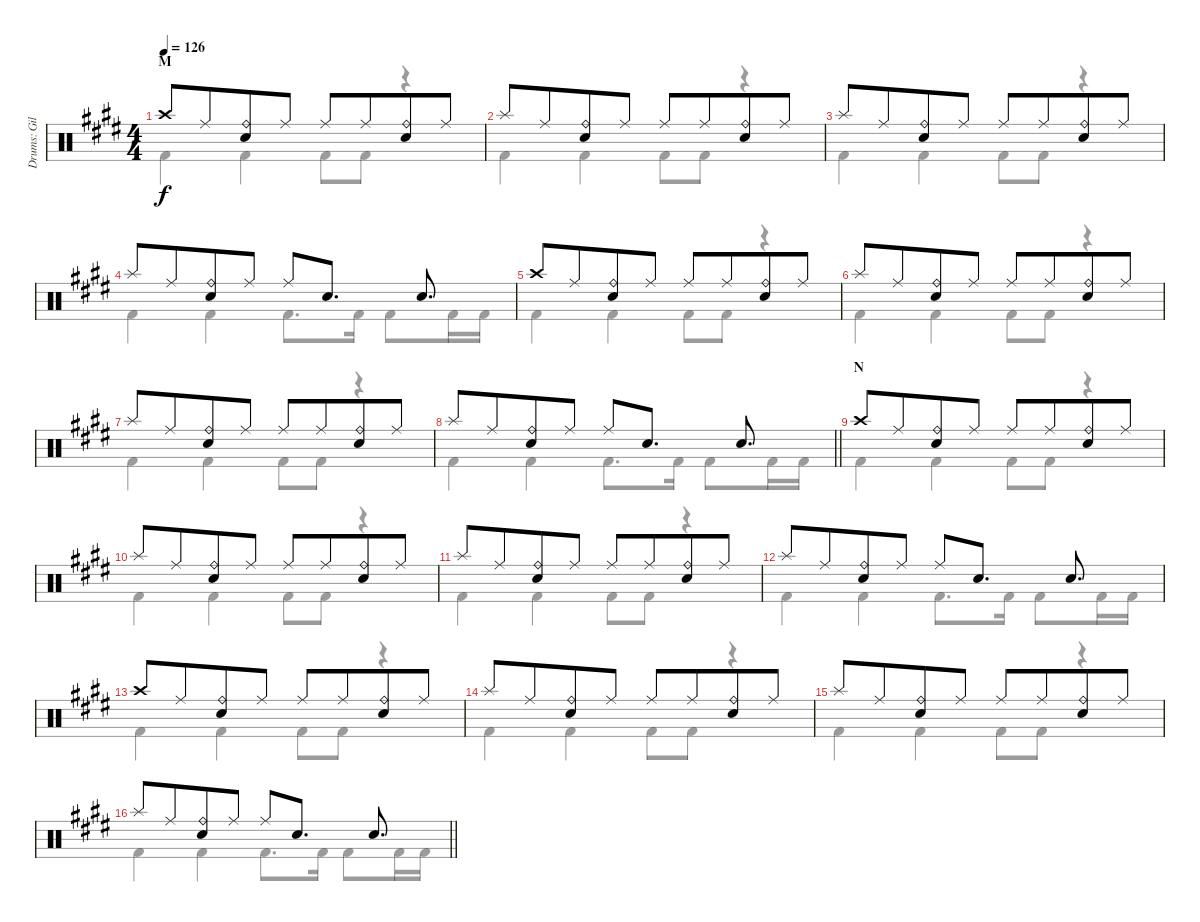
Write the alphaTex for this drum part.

\track ("Drums: Gil" "Drums: Gil") {instrument percussion}
\staff {score}
\articulation defaults
\voice
\ts (4 4)
\section ("" "M")
\tempo 126
\clef neutral
\ks e "Crash high (hit)".8{dy f} "Ride (middle)".8{beam merge}
("Ride (bell)" "Snare (hit) 2").8 "Ride (middle)".8 "Ride (middle)".8 "Ride (middle)".8{beam merge} ("Ride (bell)" "Snare (hit) 2").8 "Ride (middle)".8 |
"Splash (hit)".8 "Ride (middle)".8{beam merge} ("Ride (bell)" "Snare (hit) 2").8 "Ride (middle)".8 "Ride (middle)".8 "Ride (middle)".8{beam merge} ("Ride (bell)" "Snare (hit) 2").8 "Ride (middle)".8 |
"Splash (hit)".8 "Ride (middle)".8{beam merge} ("Ride (bell)" "Snare (hit) 2").8 "Ride (middle)".8 "Ride (middle)".8 "Ride (middle)".8{beam merge} ("Ride (bell)" "Snare (hit) 2").8 "Ride (middle)".8 |
"Splash (hit)".8 "Ride (middle)".8{beam merge} ("Ride (bell)" "Snare (hit) 2").8 "Ride (middle)".8 "Ride (middle)".8 "Snare (hit) 2".8{d} "Snare (hit) 2".8{d} |
"Crash high (hit)".8 "Ride (middle)".8{beam merge} ("Ride (bell)" "Snare (hit) 2").8 "Ride (middle)".8 "Ride (middle)".8 "Ride (middle)".8{beam merge} ("Ride (bell)" "Snare (hit) 2").8 "Ride (middle)".8 |
"Splash (hit)".8 "Ride (middle)".8{beam merge} ("Ride (bell)" "Snare (hit) 2").8 "Ride (middle)".8 "Ride (middle)".8 "Ride (middle)".8{beam merge} ("Ride (bell)" "Snare (hit) 2").8 "Ride (middle)".8 |
"Splash (hit)".8 "Ride (middle)".8{beam merge} ("Ride (bell)" "Snare (hit) 2").8 "Ride (middle)".8 "Ride (middle)".8 "Ride (middle)".8{beam merge} ("Ride (bell)" "Snare (hit) 2").8 "Ride (middle)".8 |
\barLineRight lightlight "Splash (hit)".8 "Ride (middle)".8{beam merge}
("Ride (bell)" "Snare (hit) 2").8 "Ride (middle)".8 "Ride (middle)".8 "Snare (hit) 2".8{d} "Snare (hit) 2".8{d} |
\section ("" "N")
"Crash high (hit)".8 "Ride (middle)".8{beam merge} ("Ride (bell)" "Snare (hit) 2").8 "Ride (middle)".8 "Ride (middle)".8 "Ride (middle)".8{beam merge} ("Ride (bell)" "Snare (hit) 2").8 "Ride (middle)".8 |
"Splash (hit)".8 "Ride (middle)".8{beam merge} ("Ride (bell)" "Snare (hit) 2").8 "Ride (middle)".8 "Ride (middle)".8 "Ride (middle)".8{beam merge} ("Ride (bell)" "Snare (hit) 2").8 "Ride (middle)".8 |
"Splash (hit)".8 "Ride (middle)".8{beam merge} ("Ride (bell)" "Snare (hit) 2").8 "Ride (middle)".8 "Ride (middle)".8 "Ride (middle)".8{beam merge} ("Ride (bell)" "Snare (hit) 2").8 "Ride (middle)".8 |
"Splash (hit)".8 "Ride (middle)".8{beam merge} ("Ride (bell)" "Snare (hit) 2").8 "Ride (middle)".8 "Ride (middle)".8 "Snare (hit) 2".8{d} "Snare (hit) 2".8{d} |
"Crash high (hit)".8 "Ride (middle)".8{beam merge} ("Ride (bell)" "Snare (hit) 2").8 "Ride (middle)".8 "Ride (middle)".8 "Ride (middle)".8{beam merge} ("Ride (bell)" "Snare (hit) 2").8 "Ride (middle)".8 |
"Splash (hit)".8 "Ride (middle)".8{beam merge} ("Ride (bell)" "Snare (hit) 2").8 "Ride (middle)".8 "Ride (middle)".8 "Ride (middle)".8{beam merge} ("Ride (bell)" "Snare (hit) 2").8 "Ride (middle)".8 |
"Splash (hit)".8 "Ride (middle)".8{beam merge} ("Ride (bell)" "Snare (hit) 2").8 "Ride (middle)".8 "Ride (middle)".8 "Ride (middle)".8{beam merge} ("Ride (bell)" "Snare (hit) 2").8 "Ride (middle)".8 |
\barLineRight lightlight "Splash (hit)".8 "Ride (middle)".8{beam merge}
("Ride (bell)" "Snare (hit) 2").8 "Ride (middle)".8 "Ride (middle)".8 "Snare (hit) 2".8{d} "Snare (hit) 2".8{d}
\voice
\clef neutral
\ottava regular
\simile none
\ks e "Kick (hit) 2".4{dy f} "Kick (hit) 2".4 "Kick (hit) 2".8 "Kick (hit) 2".8
r.4 |
"Kick (hit) 2".4 "Kick (hit) 2".4 "Kick (hit) 2".8 "Kick (hit) 2".8 r.4 |
"Kick (hit) 2".4 "Kick (hit) 2".4 "Kick (hit) 2".8 "Kick (hit) 2".8 r.4 |
"Kick (hit) 2".4 "Kick (hit) 2".4 "Kick (hit) 2".8{d} "Kick (hit) 2".16 "Kick (hit) 2".8 "Kick (hit) 2".16 "Kick (hit) 2".16 |
"Kick (hit) 2".4 "Kick (hit) 2".4 "Kick (hit) 2".8 "Kick (hit) 2".8 r.4 |
"Kick (hit) 2".4 "Kick (hit) 2".4 "Kick (hit) 2".8 "Kick (hit) 2".8 r.4 |
"Kick (hit) 2".4 "Kick (hit) 2".4 "Kick (hit) 2".8 "Kick (hit) 2".8 r.4 |
\barLineRight lightlight "Kick (hit) 2".4 "Kick (hit) 2".4 "Kick (hit) 2".8{d} "Kick (hit) 2".16 "Kick (hit) 2".8 "Kick (hit) 2".16 "Kick (hit) 2".16
|
"Kick (hit) 2".4 "Kick (hit) 2".4 "Kick (hit) 2".8 "Kick (hit) 2".8 r.4 |
"Kick (hit) 2".4 "Kick (hit) 2".4 "Kick (hit) 2".8 "Kick (hit) 2".8 r.4 |
"Kick (hit) 2".4 "Kick (hit) 2".4 "Kick (hit) 2".8 "Kick (hit) 2".8 r.4 |
"Kick (hit) 2".4 "Kick (hit) 2".4 "Kick (hit) 2".8{d} "Kick (hit) 2".16 "Kick (hit) 2".8 "Kick (hit) 2".16 "Kick (hit) 2".16 |
"Kick (hit) 2".4 "Kick (hit) 2".4 "Kick (hit) 2".8 "Kick (hit) 2".8 r.4 |
"Kick (hit) 2".4 "Kick (hit) 2".4 "Kick (hit) 2".8 "Kick (hit) 2".8 r.4 |
"Kick (hit) 2".4 "Kick (hit) 2".4 "Kick (hit) 2".8 "Kick (hit) 2".8 r.4 |
\barLineRight lightlight "Kick (hit) 2".4 "Kick (hit) 2".4 "Kick (hit) 2".8{d} "Kick (hit) 2".16 "Kick (hit) 2".8 "Kick (hit) 2".16 "Kick (hit) 2".16
